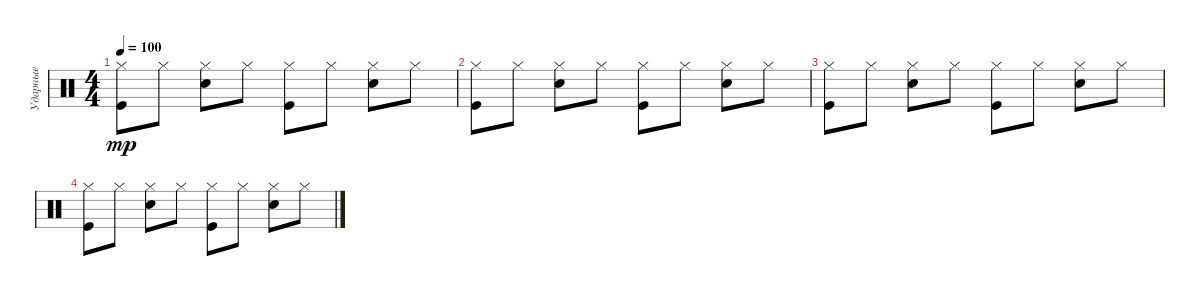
\track ("Ударные" "Ударные") {instrument percussion}
\staff {score}
\articulation defaults
\ts (4 4)
\tempo 100
\clef neutral
\ks c
("Hi-Hat (closed)" "Kick (hit)").8{dy mp} "Hi-Hat (closed)".8 ("Hi-Hat (closed)" "Snare (hit) 2").8 "Hi-Hat (closed)".8 ("Hi-Hat (closed)" "Kick (hit)").8 "Hi-Hat (closed)".8 ("Hi-Hat (closed)" "Snare (hit) 2").8 "Hi-Hat (closed)".8 |
("Hi-Hat (closed)" "Kick (hit)").8 "Hi-Hat (closed)".8 ("Hi-Hat (closed)" "Snare (hit) 2").8 "Hi-Hat (closed)".8 ("Hi-Hat (closed)" "Kick (hit)").8 "Hi-Hat (closed)".8 ("Hi-Hat (closed)" "Snare (hit) 2").8 "Hi-Hat (closed)".8 |
("Hi-Hat (closed)" "Kick (hit)").8 "Hi-Hat (closed)".8 ("Hi-Hat (closed)" "Snare (hit) 2").8 "Hi-Hat (closed)".8 ("Hi-Hat (closed)" "Kick (hit)").8 "Hi-Hat (closed)".8 ("Hi-Hat (closed)" "Snare (hit) 2").8 "Hi-Hat (closed)".8 |
("Hi-Hat (closed)" "Kick (hit)").8 "Hi-Hat (closed)".8 ("Hi-Hat (closed)" "Snare (hit) 2").8 "Hi-Hat (closed)".8 ("Hi-Hat (closed)" "Kick (hit)").8 "Hi-Hat (closed)".8 ("Hi-Hat (closed)" "Snare (hit) 2").8 "Hi-Hat (closed)".8
